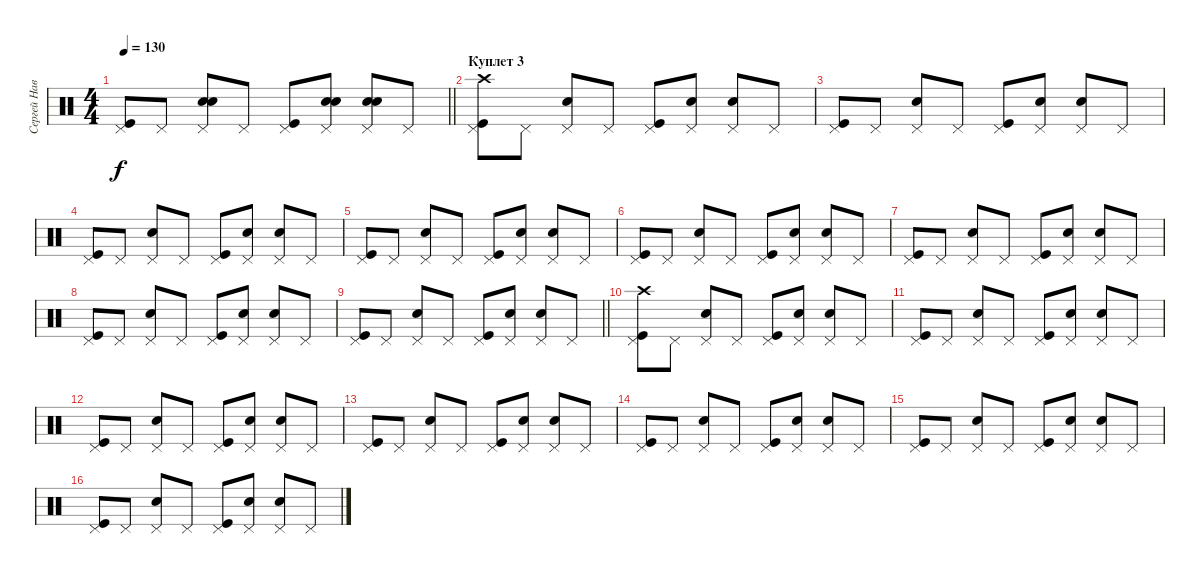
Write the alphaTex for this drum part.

\track ("Сергей Наветный (ударные)" "Сергей Нав") {instrument percussion}
\staff {score}
\articulation defaults
\ts (4 4)
\tempo 130
\clef neutral
\barLineRight lightlight
\ks c
("Kick (hit)" "Pedal Hi-Hat (hit)").8{dy f} "Pedal Hi-Hat (hit)".8 ("Hand Clap (hit)" "Snare (hit) 2" "Pedal Hi-Hat (hit)").8 "Pedal Hi-Hat (hit)".8 ("Kick (hit)" "Pedal Hi-Hat (hit)").8 ("Hand Clap (hit)" "Snare (hit) 2" "Pedal Hi-Hat (hit)").8 ("Hand Clap (hit)" "Snare (hit) 2" "Pedal Hi-Hat (hit)").8 "Pedal Hi-Hat (hit)".8 |
\section ("" "Куплет 3")
("Pedal Hi-Hat (hit)" "Kick (hit)" "Crash high (hit)").8 "Pedal Hi-Hat (hit)".8 ("Pedal Hi-Hat (hit)" "Snare (hit) 2").8 "Pedal Hi-Hat (hit)".8 ("Kick (hit)" "Pedal Hi-Hat (hit)").8 ("Snare (hit) 2" "Pedal Hi-Hat (hit)").8 ("Snare (hit) 2" "Pedal Hi-Hat (hit)").8 "Pedal Hi-Hat (hit)".8 |
("Pedal Hi-Hat (hit)" "Kick (hit)").8 "Pedal Hi-Hat (hit)".8 ("Pedal Hi-Hat (hit)" "Snare (hit) 2").8 "Pedal Hi-Hat (hit)".8 ("Kick (hit)" "Pedal Hi-Hat (hit)").8 ("Snare (hit) 2" "Pedal Hi-Hat (hit)").8 ("Snare (hit) 2" "Pedal Hi-Hat (hit)").8 "Pedal Hi-Hat (hit)".8 |
("Pedal Hi-Hat (hit)" "Kick (hit)").8 "Pedal Hi-Hat (hit)".8 ("Pedal Hi-Hat (hit)" "Snare (hit) 2").8 "Pedal Hi-Hat (hit)".8 ("Kick (hit)" "Pedal Hi-Hat (hit)").8 ("Snare (hit) 2" "Pedal Hi-Hat (hit)").8 ("Snare (hit) 2" "Pedal Hi-Hat (hit)").8 "Pedal Hi-Hat (hit)".8 |
("Pedal Hi-Hat (hit)" "Kick (hit)").8 "Pedal Hi-Hat (hit)".8 ("Pedal Hi-Hat (hit)" "Snare (hit) 2").8 "Pedal Hi-Hat (hit)".8 ("Kick (hit)" "Pedal Hi-Hat (hit)").8 ("Snare (hit) 2" "Pedal Hi-Hat (hit)").8 ("Snare (hit) 2" "Pedal Hi-Hat (hit)").8 "Pedal Hi-Hat (hit)".8 |
("Pedal Hi-Hat (hit)" "Kick (hit)").8 "Pedal Hi-Hat (hit)".8 ("Pedal Hi-Hat (hit)" "Snare (hit) 2").8 "Pedal Hi-Hat (hit)".8 ("Kick (hit)" "Pedal Hi-Hat (hit)").8 ("Snare (hit) 2" "Pedal Hi-Hat (hit)").8 ("Snare (hit) 2" "Pedal Hi-Hat (hit)").8 "Pedal Hi-Hat (hit)".8 |
("Pedal Hi-Hat (hit)" "Kick (hit)").8 "Pedal Hi-Hat (hit)".8 ("Pedal Hi-Hat (hit)" "Snare (hit) 2").8 "Pedal Hi-Hat (hit)".8 ("Kick (hit)" "Pedal Hi-Hat (hit)").8 ("Snare (hit) 2" "Pedal Hi-Hat (hit)").8 ("Snare (hit) 2" "Pedal Hi-Hat (hit)").8 "Pedal Hi-Hat (hit)".8 |
("Pedal Hi-Hat (hit)" "Kick (hit)").8 "Pedal Hi-Hat (hit)".8 ("Pedal Hi-Hat (hit)" "Snare (hit) 2").8 "Pedal Hi-Hat (hit)".8 ("Kick (hit)" "Pedal Hi-Hat (hit)").8 ("Snare (hit) 2" "Pedal Hi-Hat (hit)").8 ("Snare (hit) 2" "Pedal Hi-Hat (hit)").8 "Pedal Hi-Hat (hit)".8 |
\barLineRight lightlight
("Pedal Hi-Hat (hit)" "Kick (hit)").8 "Pedal Hi-Hat (hit)".8 ("Pedal Hi-Hat (hit)" "Snare (hit) 2").8 "Pedal Hi-Hat (hit)".8 ("Kick (hit)" "Pedal Hi-Hat (hit)").8 ("Snare (hit) 2" "Pedal Hi-Hat (hit)").8 ("Snare (hit) 2" "Pedal Hi-Hat (hit)").8 "Pedal Hi-Hat (hit)".8 |
("Pedal Hi-Hat (hit)" "Kick (hit)" "Crash high (hit)").8 "Pedal Hi-Hat (hit)".8 ("Pedal Hi-Hat (hit)" "Snare (hit) 2").8 "Pedal Hi-Hat (hit)".8 ("Kick (hit)" "Pedal Hi-Hat (hit)").8 ("Snare (hit) 2" "Pedal Hi-Hat (hit)").8 ("Snare (hit) 2" "Pedal Hi-Hat (hit)").8 "Pedal Hi-Hat (hit)".8 |
("Pedal Hi-Hat (hit)" "Kick (hit)").8 "Pedal Hi-Hat (hit)".8 ("Pedal Hi-Hat (hit)" "Snare (hit) 2").8 "Pedal Hi-Hat (hit)".8 ("Kick (hit)" "Pedal Hi-Hat (hit)").8 ("Snare (hit) 2" "Pedal Hi-Hat (hit)").8 ("Snare (hit) 2" "Pedal Hi-Hat (hit)").8 "Pedal Hi-Hat (hit)".8 |
("Pedal Hi-Hat (hit)" "Kick (hit)").8 "Pedal Hi-Hat (hit)".8 ("Pedal Hi-Hat (hit)" "Snare (hit) 2").8 "Pedal Hi-Hat (hit)".8 ("Kick (hit)" "Pedal Hi-Hat (hit)").8 ("Snare (hit) 2" "Pedal Hi-Hat (hit)").8 ("Snare (hit) 2" "Pedal Hi-Hat (hit)").8 "Pedal Hi-Hat (hit)".8 |
("Pedal Hi-Hat (hit)" "Kick (hit)").8 "Pedal Hi-Hat (hit)".8 ("Pedal Hi-Hat (hit)" "Snare (hit) 2").8 "Pedal Hi-Hat (hit)".8 ("Kick (hit)" "Pedal Hi-Hat (hit)").8 ("Snare (hit) 2" "Pedal Hi-Hat (hit)").8 ("Snare (hit) 2" "Pedal Hi-Hat (hit)").8 "Pedal Hi-Hat (hit)".8 |
("Pedal Hi-Hat (hit)" "Kick (hit)").8 "Pedal Hi-Hat (hit)".8 ("Pedal Hi-Hat (hit)" "Snare (hit) 2").8 "Pedal Hi-Hat (hit)".8 ("Kick (hit)" "Pedal Hi-Hat (hit)").8 ("Snare (hit) 2" "Pedal Hi-Hat (hit)").8 ("Snare (hit) 2" "Pedal Hi-Hat (hit)").8 "Pedal Hi-Hat (hit)".8 |
("Pedal Hi-Hat (hit)" "Kick (hit)").8 "Pedal Hi-Hat (hit)".8 ("Pedal Hi-Hat (hit)" "Snare (hit) 2").8 "Pedal Hi-Hat (hit)".8 ("Kick (hit)" "Pedal Hi-Hat (hit)").8 ("Snare (hit) 2" "Pedal Hi-Hat (hit)").8 ("Snare (hit) 2" "Pedal Hi-Hat (hit)").8 "Pedal Hi-Hat (hit)".8 |
("Pedal Hi-Hat (hit)" "Kick (hit)").8 "Pedal Hi-Hat (hit)".8 ("Pedal Hi-Hat (hit)" "Snare (hit) 2").8 "Pedal Hi-Hat (hit)".8 ("Kick (hit)" "Pedal Hi-Hat (hit)").8 ("Snare (hit) 2" "Pedal Hi-Hat (hit)").8 ("Snare (hit) 2" "Pedal Hi-Hat (hit)").8 "Pedal Hi-Hat (hit)".8
